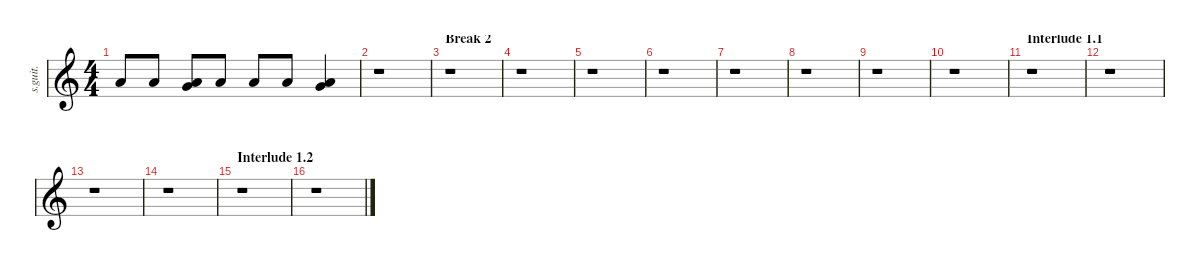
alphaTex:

\defaultSystemsLayout 4
\hideDynamics
\bracketExtendMode nobrackets
\track ("Chris Fehn" "s.guit.") {instrument percussion}
\staff {score}
\articulation defaults
\ts (4 4)
\tempo (210 hide)
\clef g2
\ks c "Low Floor Tom (hit)".8{lyrics (0 "") lyrics (1 "") lyrics (2 "") lyrics (3 "") lyrics (4 "") dy f} "Low Floor Tom (hit)".8{lyrics (0 "") lyrics (1 "") lyrics (2 "") lyrics (3 "") lyrics (4 "")}
("Very Low Tom (hit)" "Low Floor Tom (hit)").8{lyrics (0 "") lyrics (1 "") lyrics (2 "") lyrics (3 "") lyrics (4 "")} "Low Floor Tom (hit)".8{lyrics (0 "") lyrics (1 "") lyrics (2 "") lyrics (3 "") lyrics (4 "")} "Low Floor Tom (hit)".8{lyrics (0 "") lyrics (1 "") lyrics (2 "") lyrics (3 "") lyrics (4 "")} "Low Floor Tom (hit)".8{lyrics (0 "") lyrics (1 "") lyrics (2 "") lyrics (3 "") lyrics (4 "")} ("Very Low Tom (hit)" "Low Floor Tom (hit)").4{lyrics (0 "") lyrics (1 "") lyrics (2 "") lyrics (3 "") lyrics (4 "")} |
r.1 |
\section ("" "Break 2")
r.1 |
r.1 |
r.1 |
r.1 |
r.1 |
r.1 |
r.1 |
r.1 |
\section ("" "Interlude 1.1")
\tempo (200 hide)
r.1 |
r.1 |
r.1 |
r.1 |
\section ("" "Interlude 1.2")
r.1 |
r.1
